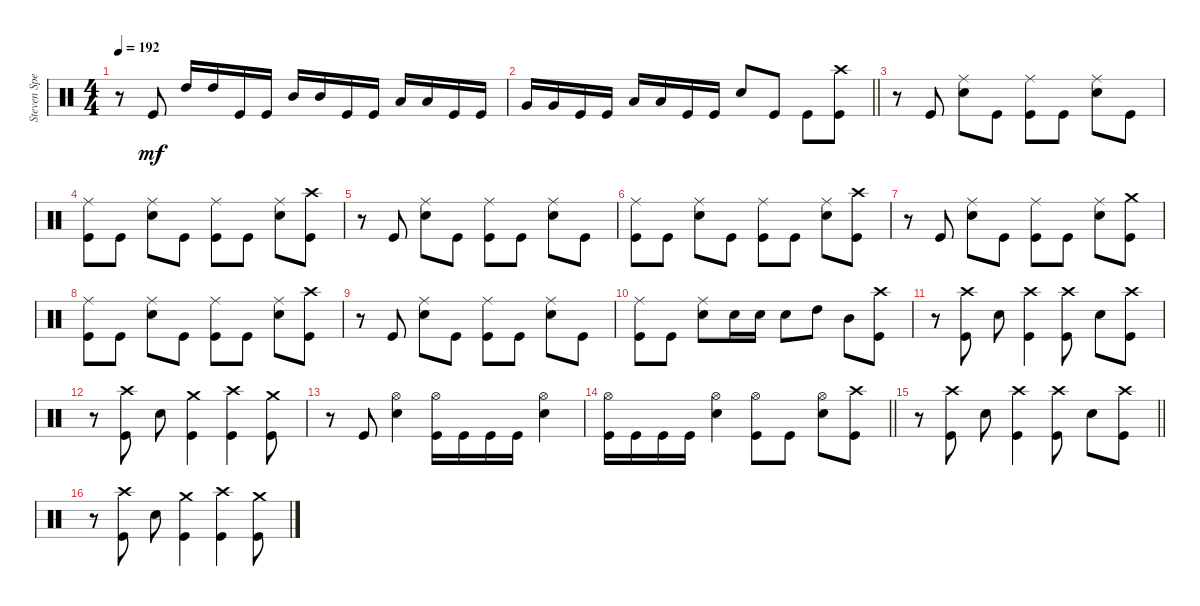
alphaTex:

\track ("Steven Spence" "Steven Spe") {instrument percussion}
\staff {score}
\articulation defaults
\ts (4 4)
\tempo 192
\clef neutral
\ks c
r.8{dy mf} "Kick (hit)".8 "High Tom (hit)".16 "High Tom (hit)".16 "Kick (hit)".16 "Kick (hit)".16 "Mid Tom (hit)".16 "Mid Tom (hit)".16 "Kick (hit)".16 "Kick (hit)".16 "Low Tom (hit)".16 "Low Tom (hit)".16 "Kick (hit)".16 "Kick (hit)".16 |
\barLineRight lightlight "Very Low Tom (hit)".16 "Very Low Tom (hit)".16 "Kick (hit)".16 "Kick (hit)".16 "Low Tom (hit)".16 "Low Tom (hit)".16 "Kick (hit)".16 "Kick (hit)".16 "Electric Snare (hit)".8 "Kick (hit)".8 "Kick (hit)".8
("Crash high (hit)" "Kick (hit)").8 |
\section ("" "")
r.8 "Kick (hit)".8 ("Ride (middle)" "Electric Snare (hit)").8 "Kick (hit)".8 ("Ride (middle)" "Kick (hit)").8 "Kick (hit)".8 ("Ride (middle)" "Electric Snare (hit)").8 "Kick (hit)".8 |
("Ride (middle)" "Kick (hit)").8 "Kick (hit)".8 ("Ride (middle)" "Electric Snare (hit)").8 "Kick (hit)".8 ("Ride (middle)" "Kick (hit)").8 "Kick (hit)".8 ("Ride (middle)" "Electric Snare (hit)").8 ("Crash high (hit)" "Kick (hit)").8 |
r.8 "Kick (hit)".8 ("Ride (middle)" "Electric Snare (hit)").8 "Kick (hit)".8 ("Ride (middle)" "Kick (hit)").8 "Kick (hit)".8 ("Ride (middle)" "Electric Snare (hit)").8 "Kick (hit)".8 |
("Ride (middle)" "Kick (hit)").8 "Kick (hit)".8 ("Ride (middle)" "Electric Snare (hit)").8 "Kick (hit)".8 ("Ride (middle)" "Kick (hit)").8 "Kick (hit)".8 ("Ride (middle)" "Electric Snare (hit)").8 ("Crash high (hit)" "Kick (hit)").8 |
r.8 "Kick (hit)".8 ("Ride (middle)" "Electric Snare (hit)").8 "Kick (hit)".8 ("Ride (middle)" "Kick (hit)").8 "Kick (hit)".8 ("Ride (middle)" "Electric Snare (hit)").8 ("Crash medium (hit)" "Kick (hit)").8 |
("Ride (middle)" "Kick (hit)").8 "Kick (hit)".8 ("Ride (middle)" "Electric Snare (hit)").8 "Kick (hit)".8 ("Ride (middle)" "Kick (hit)").8 "Kick (hit)".8 ("Ride (middle)" "Electric Snare (hit)").8 ("Crash high (hit)" "Kick (hit)").8 |
r.8 "Kick (hit)".8 ("Ride (middle)" "Electric Snare (hit)").8 "Kick (hit)".8 ("Ride (middle)" "Kick (hit)").8 "Kick (hit)".8 ("Ride (middle)" "Electric Snare (hit)").8 "Kick (hit)".8 |
("Ride (middle)" "Kick (hit)").8 "Kick (hit)".8 ("Ride (middle)" "Electric Snare (hit)").8 "Electric Snare (hit)".16 "Electric Snare (hit)".16 "Electric Snare (hit)".8 "High Tom (hit)".8 "Mid Tom (hit)".8 ("Crash high (hit)" "Kick (hit)").8 |
r.8 ("Crash high (hit)" "Kick (hit)").8 "Electric Snare (hit)".8 ("Crash high (hit)" "Kick (hit)").4 ("Crash high (hit)" "Kick (hit)").8 "Electric Snare (hit)".8 ("Crash high (hit)" "Kick (hit)").8 |
r.8 ("Crash high (hit)" "Kick (hit)").8 "Electric Snare (hit)".8 ("Crash medium (hit)" "Kick (hit)").4 ("Crash high (hit)" "Kick (hit)").4 ("Crash medium (hit)" "Kick (hit)").8 |
r.8 "Kick (hit)".8 ("Hi-Hat (open)" "Electric Snare (hit)").4 ("Hi-Hat (open)" "Kick (hit)").16 "Kick (hit)".16 "Kick (hit)".16 "Kick (hit)".16 ("Hi-Hat (open)" "Electric Snare (hit)").4 |
\barLineRight lightlight
("Hi-Hat (open)" "Kick (hit)").16 "Kick (hit)".16 "Kick (hit)".16 "Kick (hit)".16 ("Hi-Hat (open)" "Electric Snare (hit)").4 ("Hi-Hat (open)" "Kick (hit)").8 "Kick (hit)".8 ("Hi-Hat (open)" "Electric Snare (hit)").8 ("Crash high (hit)" "Kick (hit)").8 |
\barLineRight lightlight
r.8 ("Crash high (hit)" "Kick (hit)").8 "Electric Snare (hit)".8 ("Crash high (hit)" "Kick (hit)").4 ("Crash high (hit)" "Kick (hit)").8 "Electric Snare (hit)".8 ("Crash high (hit)" "Kick (hit)").8 |
\section ("" "")
r.8 ("Crash high (hit)" "Kick (hit)").8 "Electric Snare (hit)".8 ("Crash medium (hit)" "Kick (hit)").4 ("Crash high (hit)" "Kick (hit)").4 ("Crash medium (hit)" "Kick (hit)").8
